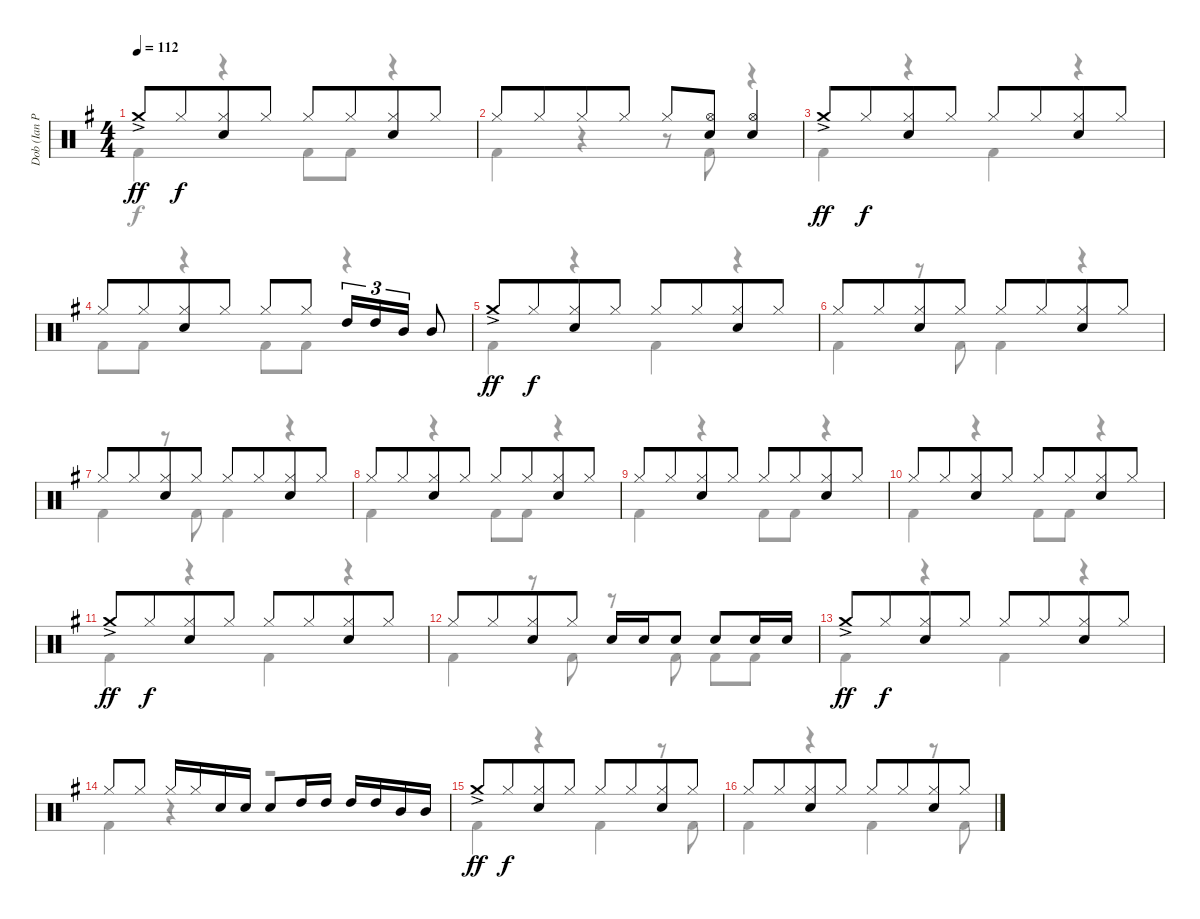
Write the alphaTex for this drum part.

\track ("Dob (Ian Paice)" "Dob (Ian P") {instrument percussion}
\staff {score}
\articulation defaults
\voice
\ts (4 4)
\tempo 112
\clef neutral
\ks g "Crash medium (hit)"{ac}.8{dy ff} "Hi-Hat (closed)".8{dy f beam merge}
("Hi-Hat (closed)" "Electric Snare (hit)").8 "Hi-Hat (closed)".8 "Hi-Hat (closed)".8 "Hi-Hat (closed)".8{beam merge} ("Hi-Hat (closed)" "Electric Snare (hit)").8 "Hi-Hat (closed)".8 |
"Hi-Hat (closed)".8 "Hi-Hat (closed)".8{beam merge} "Hi-Hat (closed)".8 "Hi-Hat (closed)".8 "Hi-Hat (closed)".8 ("Hi-Hat (open)" "Electric Snare (hit)").8 ("Hi-Hat (open)" "Electric Snare (hit)").4 |
"Crash medium (hit)"{ac}.8{dy ff} "Hi-Hat (closed)".8{dy f beam merge} ("Hi-Hat (closed)" "Electric Snare (hit)").8 "Hi-Hat (closed)".8 "Hi-Hat (closed)".8 "Hi-Hat (closed)".8{beam merge} ("Hi-Hat (closed)" "Electric Snare (hit)").8 "Hi-Hat (closed)".8 |
"Hi-Hat (closed)".8 "Hi-Hat (closed)".8{beam merge} ("Hi-Hat (closed)" "Electric Snare (hit)").8 "Hi-Hat (closed)".8 "Hi-Hat (closed)".8 "Hi-Hat (closed)".8 "High Tom (hit)".16{tu (3 2)} "High Tom (hit)".16{tu (3 2)} "Mid Tom (hit)".16{tu (3 2)} "Mid Tom (hit)".8 |
"Crash medium (hit)"{ac}.8{dy ff} "Hi-Hat (closed)".8{dy f beam merge} ("Hi-Hat (closed)" "Electric Snare (hit)").8 "Hi-Hat (closed)".8 "Hi-Hat (closed)".8 "Hi-Hat (closed)".8{beam merge} ("Hi-Hat (closed)" "Electric Snare (hit)").8 "Hi-Hat (closed)".8 |
"Hi-Hat (closed)".8 "Hi-Hat (closed)".8{beam merge} ("Hi-Hat (closed)" "Electric Snare (hit)").8 "Hi-Hat (closed)".8 "Hi-Hat (closed)".8 "Hi-Hat (closed)".8{beam merge} ("Hi-Hat (closed)" "Electric Snare (hit)").8 "Hi-Hat (closed)".8 |
"Hi-Hat (closed)".8 "Hi-Hat (closed)".8{beam merge} ("Hi-Hat (closed)" "Electric Snare (hit)").8 "Hi-Hat (closed)".8 "Hi-Hat (closed)".8 "Hi-Hat (closed)".8{beam merge} ("Hi-Hat (closed)" "Electric Snare (hit)").8 "Hi-Hat (closed)".8 |
"Hi-Hat (closed)".8 "Hi-Hat (closed)".8{beam merge} ("Hi-Hat (closed)" "Electric Snare (hit)").8 "Hi-Hat (closed)".8 "Hi-Hat (closed)".8 "Hi-Hat (closed)".8{beam merge} ("Hi-Hat (closed)" "Electric Snare (hit)").8 "Hi-Hat (closed)".8 |
"Hi-Hat (closed)".8 "Hi-Hat (closed)".8{beam merge} ("Hi-Hat (closed)" "Electric Snare (hit)").8 "Hi-Hat (closed)".8 "Hi-Hat (closed)".8 "Hi-Hat (closed)".8{beam merge} ("Hi-Hat (closed)" "Electric Snare (hit)").8 "Hi-Hat (closed)".8 |
"Hi-Hat (closed)".8 "Hi-Hat (closed)".8{beam merge} ("Hi-Hat (closed)" "Electric Snare (hit)").8 "Hi-Hat (closed)".8 "Hi-Hat (closed)".8 "Hi-Hat (closed)".8{beam merge} ("Hi-Hat (closed)" "Electric Snare (hit)").8 "Hi-Hat (closed)".8 |
"Crash medium (hit)"{ac}.8{dy ff} "Hi-Hat (closed)".8{dy f beam merge} ("Hi-Hat (closed)" "Electric Snare (hit)").8 "Hi-Hat (closed)".8 "Hi-Hat (closed)".8 "Hi-Hat (closed)".8{beam merge} ("Hi-Hat (closed)" "Electric Snare (hit)").8 "Hi-Hat (closed)".8 |
"Hi-Hat (closed)".8 "Hi-Hat (closed)".8{beam merge} ("Hi-Hat (closed)" "Electric Snare (hit)").8 "Hi-Hat (closed)".8 "Electric Snare (hit)".16 "Electric Snare (hit)".16 "Electric Snare (hit)".8 "Electric Snare (hit)".8 "Electric Snare (hit)".16 "Electric Snare (hit)".16 |
"Crash medium (hit)"{ac}.8{dy ff} "Hi-Hat (closed)".8{dy f beam merge} ("Hi-Hat (closed)" "Electric Snare (hit)").8 "Hi-Hat (closed)".8 "Hi-Hat (closed)".8 "Hi-Hat (closed)".8{beam merge} ("Hi-Hat (closed)" "Electric Snare (hit)").8 "Hi-Hat (closed)".8 |
"Hi-Hat (closed)".8 "Hi-Hat (closed)".8 "Hi-Hat (closed)".16 "Hi-Hat (closed)".16 "Electric Snare (hit)".16 "Electric Snare (hit)".16 "Electric Snare (hit)".8 "High Tom (hit)".16 "High Tom (hit)".16 "High Tom (hit)".16 "High Tom (hit)".16 "Mid Tom (hit)".16 "Mid Tom (hit)".16 |
"Crash medium (hit)"{ac}.8{dy ff} "Hi-Hat (closed)".8{dy f beam merge} ("Hi-Hat (closed)" "Electric Snare (hit)").8 "Hi-Hat (closed)".8 "Hi-Hat (closed)".8 "Hi-Hat (closed)".8{beam merge} ("Hi-Hat (closed)" "Electric Snare (hit)").8 "Hi-Hat (closed)".8 |
"Hi-Hat (closed)".8 "Hi-Hat (closed)".8{beam merge} ("Hi-Hat (closed)" "Electric Snare (hit)").8 "Hi-Hat (closed)".8 "Hi-Hat (closed)".8 "Hi-Hat (closed)".8{beam merge} ("Hi-Hat (closed)" "Electric Snare (hit)").8 "Hi-Hat (closed)".8
\voice
\clef neutral
\ottava regular
\simile none
\ks g "Kick (hit) 2".4{dy f}
r.4 "Kick (hit) 2".8 "Kick (hit) 2".8 r.4 |
"Kick (hit) 2".4 r.4 r.8 "Kick (hit) 2".8 r.4 |
"Kick (hit) 2".4 r.4 "Kick (hit) 2".4 r.4 |
"Kick (hit) 2".8 "Kick (hit) 2".8 r.4 "Kick (hit) 2".8 "Kick (hit) 2".8 r.4 |
"Kick (hit) 2".4 r.4 "Kick (hit) 2".4 r.4 |
"Kick (hit) 2".4 r.8 "Kick (hit) 2".8 "Kick (hit) 2".4 r.4 |
"Kick (hit) 2".4 r.8 "Kick (hit) 2".8 "Kick (hit) 2".4 r.4 |
"Kick (hit) 2".4 r.4 "Kick (hit) 2".8 "Kick (hit) 2".8 r.4 |
"Kick (hit) 2".4 r.4 "Kick (hit) 2".8 "Kick (hit) 2".8 r.4 |
"Kick (hit) 2".4 r.4 "Kick (hit) 2".8 "Kick (hit) 2".8 r.4 |
"Kick (hit) 2".4 r.4 "Kick (hit) 2".4 r.4 |
"Kick (hit) 2".4 r.8 "Kick (hit) 2".8 r.8 "Kick (hit) 2".8 "Kick (hit) 2".8 "Kick (hit) 2".8 |
"Kick (hit) 2".4 r.4 "Kick (hit) 2".4 r.4 |
"Kick (hit) 2".4 r.4 r.2 |
"Kick (hit) 2".4 r.4 "Kick (hit) 2".4 r.8 "Kick (hit) 2".8 |
"Kick (hit) 2".4 r.4 "Kick (hit) 2".4 r.8 "Kick (hit) 2".8
